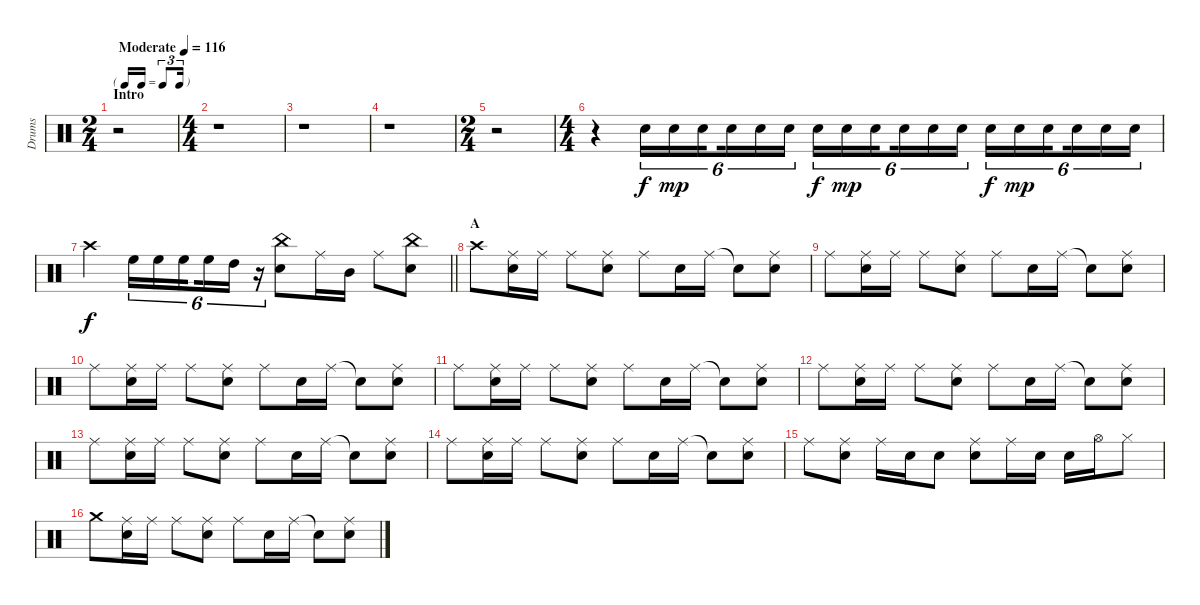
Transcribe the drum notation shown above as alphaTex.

\track ("Drums" "Drums") {instrument percussion}
\staff {score}
\articulation defaults
\ts (2 4)
\tf triplet16th
\section ("" "Intro")
\tempo (116 "Moderate")
\clef neutral
\ks c
r.2{dy f} |
\ts (4 4)
r.1 |
r.1 |
r.1 |
\ts (2 4)
r.2 |
\ts (4 4)
r.4 "Snare (hit) 2".16{tu (6 4)} "Snare (hit) 2".16{tu (6 4) dy mp} "Snare (hit) 2".16{tu (6 4) beam splitsecondary} "Snare (hit) 2".16{tu (6 4)} "Snare (hit) 2".16{tu (6 4)} "Snare (hit) 2".16{tu (6 4)} "Snare (hit) 2".16{tu (6 4) dy f} "Snare (hit) 2".16{tu (6 4) dy mp} "Snare (hit) 2".16{tu (6 4) beam splitsecondary} "Snare (hit) 2".16{tu (6 4)} "Snare (hit) 2".16{tu (6 4)} "Snare (hit) 2".16{tu (6 4)} "Snare (hit) 2".16{tu (6 4) dy f} "Snare (hit) 2".16{tu (6 4) dy mp} "Snare (hit) 2".16{tu (6 4) beam splitsecondary} "Snare (hit) 2".16{tu (6 4)} "Snare (hit) 2".16{tu (6 4)} "Snare (hit) 2".16{tu (6 4)} |
\barLineRight lightlight "Crash high (hit)".4{dy f} "High Floor Tom (hit)".16{tu (6 4)} "High Floor Tom (hit)".16{tu (6 4)} "High Floor Tom (hit)".16{tu (6 4) beam splitsecondary} "High Floor Tom (hit)".16{tu (6 4)} "High Tom (hit)".16{tu (6 4)}
r.16{tu (6 4)} ("China (hit)" "Snare (hit) 2").8 "Ride (middle)".16 "Mid Tom (hit)".16 "Ride (middle)".8 ("China (hit)" "Snare (hit) 2").8 |
\section ("" "A")
"Crash high (hit)".8 ("Ride (middle)" "Snare (hit) 2").16 "Ride (middle)".16 "Ride (middle)".8 ("Ride (middle)" "Snare (hit) 2").8 "Ride (middle)".8 "Snare (hit) 2".16 "Ride (middle)".16 "Snare (hit)"{t}.8 ("Ride (middle)" "Snare (hit) 2").8 |
"Ride (middle)".8 ("Ride (middle)" "Snare (hit) 2").16 "Ride (middle)".16 "Ride (middle)".8 ("Ride (middle)" "Snare (hit) 2").8 "Ride (middle)".8 "Snare (hit) 2".16 "Ride (middle)".16 "Snare (hit)"{t}.8 ("Ride (middle)" "Snare (hit) 2").8 |
"Ride (middle)".8 ("Ride (middle)" "Snare (hit) 2").16 "Ride (middle)".16 "Ride (middle)".8 ("Ride (middle)" "Snare (hit) 2").8 "Ride (middle)".8 "Snare (hit) 2".16 "Ride (middle)".16 "Snare (hit)"{t}.8 ("Ride (middle)" "Snare (hit) 2").8 |
"Ride (middle)".8 ("Ride (middle)" "Snare (hit) 2").16 "Ride (middle)".16 "Ride (middle)".8 ("Ride (middle)" "Snare (hit) 2").8 "Ride (middle)".8 "Snare (hit) 2".16 "Ride (middle)".16 "Snare (hit)"{t}.8 ("Ride (middle)" "Snare (hit) 2").8 |
"Ride (middle)".8 ("Ride (middle)" "Snare (hit) 2").16 "Ride (middle)".16 "Ride (middle)".8 ("Ride (middle)" "Snare (hit) 2").8 "Ride (middle)".8 "Snare (hit) 2".16 "Ride (middle)".16 "Snare (hit)"{t}.8 ("Ride (middle)" "Snare (hit) 2").8 |
"Ride (middle)".8 ("Ride (middle)" "Snare (hit) 2").16 "Ride (middle)".16 "Ride (middle)".8 ("Ride (middle)" "Snare (hit) 2").8 "Ride (middle)".8 "Snare (hit) 2".16 "Ride (middle)".16 "Snare (hit)"{t}.8 ("Ride (middle)" "Snare (hit) 2").8 |
"Ride (middle)".8 ("Ride (middle)" "Snare (hit) 2").16 "Ride (middle)".16 "Ride (middle)".8 ("Ride (middle)" "Snare (hit) 2").8 "Ride (middle)".8 "Snare (hit) 2".16 "Ride (middle)".16 "Snare (hit)"{t}.8 ("Ride (middle)" "Snare (hit) 2").8 |
"Ride (middle)".8 ("Ride (middle)" "Snare (hit) 2").8 "Ride (middle)".16 "Snare (hit) 2".16 "Snare (hit) 2".8 ("Ride (middle)" "Snare (hit) 2").8 "Ride (middle)".16 "Snare (hit) 2".16 "Snare (hit) 2".16 "Hi-Hat (open)".16 "Hi-Hat (closed)".8 |
"Crash medium (hit)".8 ("Ride (middle)" "Snare (hit) 2").16 "Ride (middle)".16 "Ride (middle)".8 ("Ride (middle)" "Snare (hit) 2").8 "Ride (middle)".8 "Snare (hit) 2".16 "Ride (middle)".16 "Snare (hit)"{t}.8 ("Ride (middle)" "Snare (hit) 2").8
